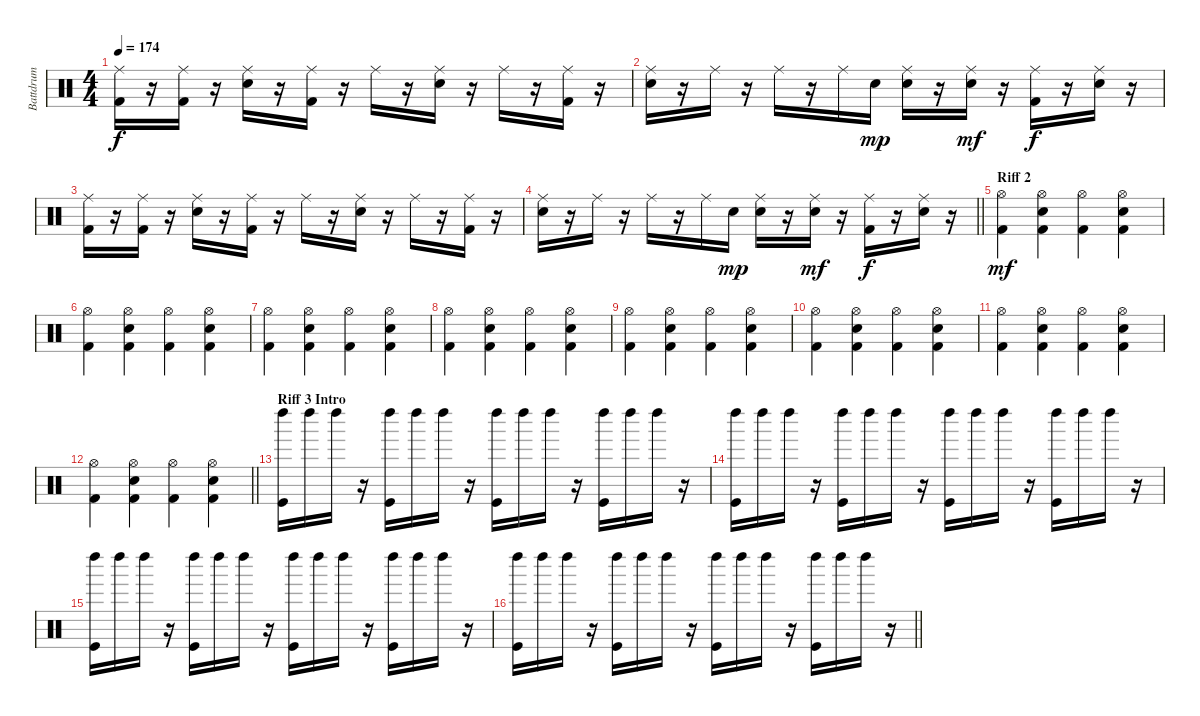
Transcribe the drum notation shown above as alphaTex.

\track ("Battdrum" "Battdrum") {instrument percussion}
\staff {score}
\articulation defaults
\ts (4 4)
\tempo 174
\clef neutral
\ks c
("Kick (hit) 2" "Ride (middle)").16{dy f} r.16 ("Kick (hit) 2" "Ride (middle)").16 r.16 ("Snare (hit) 2" "Ride (middle)").16 r.16 ("Kick (hit) 2" "Ride (middle)").16 r.16 "Ride (middle)".16 r.16 ("Snare (hit) 2" "Ride (middle)").16 r.16 "Ride (middle)".16 r.16 ("Kick (hit) 2" "Ride (middle)").16 r.16 |
("Snare (hit) 2" "Ride (middle)").16 r.16 "Ride (middle)".16 r.16 "Ride (middle)".16 r.16 "Ride (middle)".16 "Snare (hit) 2".16{dy mp} ("Snare (hit) 2" "Ride (middle)").16 r.16 ("Snare (hit) 2" "Ride (middle)").16{dy mf} r.16 ("Kick (hit) 2" "Ride (middle)").16{dy f} r.16 ("Snare (hit) 2" "Ride (middle)").16 r.16 |
("Kick (hit) 2" "Ride (middle)").16 r.16 ("Kick (hit) 2" "Ride (middle)").16 r.16 ("Snare (hit) 2" "Ride (middle)").16 r.16 ("Kick (hit) 2" "Ride (middle)").16 r.16 "Ride (middle)".16 r.16 ("Snare (hit) 2" "Ride (middle)").16 r.16 "Ride (middle)".16 r.16 ("Kick (hit) 2" "Ride (middle)").16 r.16 |
\barLineRight lightlight
("Snare (hit) 2" "Ride (middle)").16 r.16 "Ride (middle)".16 r.16 "Ride (middle)".16 r.16 "Ride (middle)".16 "Snare (hit) 2".16{dy mp} ("Snare (hit) 2" "Ride (middle)").16 r.16 ("Snare (hit) 2" "Ride (middle)").16{dy mf} r.16 ("Kick (hit) 2" "Ride (middle)").16{dy f} r.16 ("Snare (hit) 2" "Ride (middle)").16 r.16 |
\section ("" "Riff 2")
("Kick (hit) 2" "Hi-Hat (open)").4{dy mf} ("Kick (hit) 2" "Snare (hit) 2" "Hi-Hat (open)").4 ("Kick (hit) 2" "Hi-Hat (open)").4 ("Kick (hit) 2" "Snare (hit) 2" "Hi-Hat (open)").4 |
("Kick (hit) 2" "Hi-Hat (open)").4 ("Kick (hit) 2" "Snare (hit) 2" "Hi-Hat (open)").4 ("Kick (hit) 2" "Hi-Hat (open)").4 ("Kick (hit) 2" "Snare (hit) 2" "Hi-Hat (open)").4 |
("Kick (hit) 2" "Hi-Hat (open)").4 ("Kick (hit) 2" "Snare (hit) 2" "Hi-Hat (open)").4 ("Kick (hit) 2" "Hi-Hat (open)").4 ("Kick (hit) 2" "Snare (hit) 2" "Hi-Hat (open)").4 |
("Kick (hit) 2" "Hi-Hat (open)").4 ("Kick (hit) 2" "Snare (hit) 2" "Hi-Hat (open)").4 ("Kick (hit) 2" "Hi-Hat (open)").4 ("Kick (hit) 2" "Snare (hit) 2" "Hi-Hat (open)").4 |
("Kick (hit) 2" "Hi-Hat (open)").4 ("Kick (hit) 2" "Snare (hit) 2" "Hi-Hat (open)").4 ("Kick (hit) 2" "Hi-Hat (open)").4 ("Kick (hit) 2" "Snare (hit) 2" "Hi-Hat (open)").4 |
("Kick (hit) 2" "Hi-Hat (open)").4 ("Kick (hit) 2" "Snare (hit) 2" "Hi-Hat (open)").4 ("Kick (hit) 2" "Hi-Hat (open)").4 ("Kick (hit) 2" "Snare (hit) 2" "Hi-Hat (open)").4 |
("Kick (hit) 2" "Hi-Hat (open)").4 ("Kick (hit) 2" "Snare (hit) 2" "Hi-Hat (open)").4 ("Kick (hit) 2" "Hi-Hat (open)").4 ("Kick (hit) 2" "Snare (hit) 2" "Hi-Hat (open)").4 |
\barLineRight lightlight
("Kick (hit) 2" "Hi-Hat (open)").4 ("Kick (hit) 2" "Snare (hit) 2" "Hi-Hat (open)").4 ("Kick (hit) 2" "Hi-Hat (open)").4 ("Kick (hit) 2" "Snare (hit) 2" "Hi-Hat (open)").4 |
\section ("" "Riff 3 Intro")
("Kick (hit)" "Left Maraca (hit)").16 "Left Maraca (hit)".16 "Left Maraca (hit)".16 r.16 ("Kick (hit)" "Left Maraca (hit)").16 "Left Maraca (hit)".16 "Left Maraca (hit)".16 r.16 ("Kick (hit)" "Left Maraca (hit)").16 "Left Maraca (hit)".16 "Left Maraca (hit)".16 r.16 ("Kick (hit)" "Left Maraca (hit)").16 "Left Maraca (hit)".16 "Left Maraca (hit)".16 r.16 |
("Kick (hit)" "Left Maraca (hit)").16 "Left Maraca (hit)".16 "Left Maraca (hit)".16 r.16 ("Kick (hit)" "Left Maraca (hit)").16 "Left Maraca (hit)".16 "Left Maraca (hit)".16 r.16 ("Kick (hit)" "Left Maraca (hit)").16 "Left Maraca (hit)".16 "Left Maraca (hit)".16 r.16 ("Kick (hit)" "Left Maraca (hit)").16 "Left Maraca (hit)".16 "Left Maraca (hit)".16 r.16 |
("Kick (hit)" "Left Maraca (hit)").16 "Left Maraca (hit)".16 "Left Maraca (hit)".16 r.16 ("Kick (hit)" "Left Maraca (hit)").16 "Left Maraca (hit)".16 "Left Maraca (hit)".16 r.16 ("Kick (hit)" "Left Maraca (hit)").16 "Left Maraca (hit)".16 "Left Maraca (hit)".16 r.16 ("Kick (hit)" "Left Maraca (hit)").16 "Left Maraca (hit)".16 "Left Maraca (hit)".16 r.16 |
\barLineRight lightlight
("Kick (hit)" "Left Maraca (hit)").16 "Left Maraca (hit)".16 "Left Maraca (hit)".16 r.16 ("Kick (hit)" "Left Maraca (hit)").16 "Left Maraca (hit)".16 "Left Maraca (hit)".16 r.16 ("Kick (hit)" "Left Maraca (hit)").16 "Left Maraca (hit)".16 "Left Maraca (hit)".16 r.16 ("Kick (hit)" "Left Maraca (hit)").16 "Left Maraca (hit)".16 "Left Maraca (hit)".16 r.16
